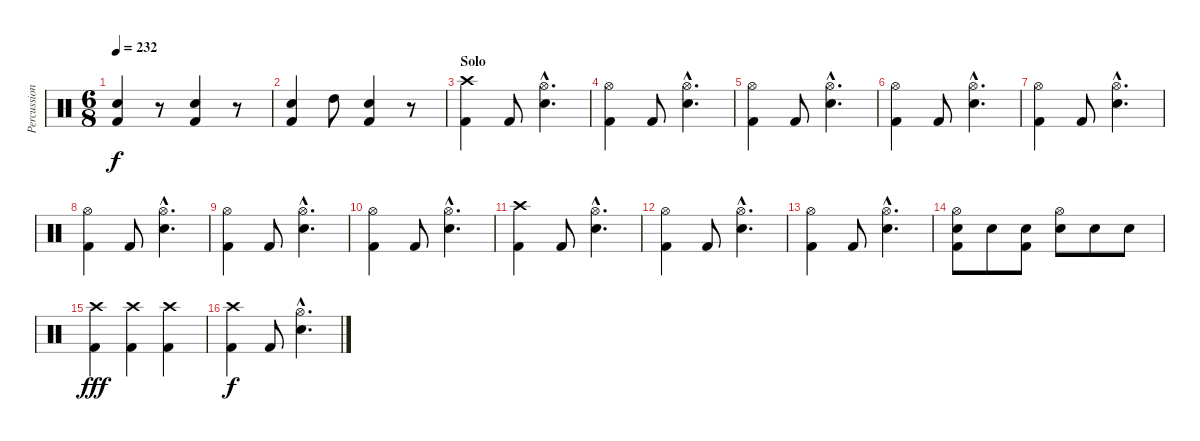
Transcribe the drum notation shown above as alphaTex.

\track ("Percussion" "Percussion") {instrument percussion}
\staff {score}
\articulation defaults
\ts (6 8)
\tempo 232
\clef neutral
\ks c
("Electric Snare (hit)" "Kick (hit) 2").4{dy f} r.8 ("Electric Snare (hit)" "Kick (hit) 2").4 r.8 |
("Electric Snare (hit)" "Kick (hit) 2").4 "High Tom (hit)".8 ("Electric Snare (hit)" "Kick (hit) 2").4 r.8 |
\section ("" "Solo")
("Crash high (hit)" "Kick (hit) 2").4 "Kick (hit) 2".8 ("Hi-Hat (open)"{hac} "Electric Snare (hit)"{hac}).4{d} |
("Hi-Hat (open)" "Kick (hit) 2").4 "Kick (hit) 2".8 ("Hi-Hat (open)"{hac} "Electric Snare (hit)"{hac}).4{d} |
("Hi-Hat (open)" "Kick (hit) 2").4 "Kick (hit) 2".8 ("Hi-Hat (open)"{hac} "Electric Snare (hit)"{hac}).4{d} |
("Hi-Hat (open)" "Kick (hit) 2").4 "Kick (hit) 2".8 ("Hi-Hat (open)"{hac} "Electric Snare (hit)"{hac}).4{d} |
("Hi-Hat (open)" "Kick (hit) 2").4 "Kick (hit) 2".8 ("Hi-Hat (open)"{hac} "Electric Snare (hit)"{hac}).4{d} |
("Hi-Hat (open)" "Kick (hit) 2").4 "Kick (hit) 2".8 ("Hi-Hat (open)"{hac} "Electric Snare (hit)"{hac}).4{d} |
("Hi-Hat (open)" "Kick (hit) 2").4 "Kick (hit) 2".8 ("Hi-Hat (open)"{hac} "Electric Snare (hit)"{hac}).4{d} |
("Hi-Hat (open)" "Kick (hit) 2").4 "Kick (hit) 2".8 ("Hi-Hat (open)"{hac} "Electric Snare (hit)"{hac}).4{d} |
("Crash high (hit)" "Kick (hit) 2").4 "Kick (hit) 2".8 ("Hi-Hat (open)"{hac} "Electric Snare (hit)"{hac}).4{d} |
("Hi-Hat (open)" "Kick (hit) 2").4 "Kick (hit) 2".8 ("Hi-Hat (open)"{hac} "Electric Snare (hit)"{hac}).4{d} |
("Hi-Hat (open)" "Kick (hit) 2").4 "Kick (hit) 2".8 ("Hi-Hat (open)"{hac} "Electric Snare (hit)"{hac}).4{d} |
("Hi-Hat (open)" "Electric Snare (hit)" "Kick (hit) 2").8 "Electric Snare (hit)".8 ("Electric Snare (hit)" "Kick (hit) 2").8 ("Hi-Hat (open)" "Electric Snare (hit)").8 "Electric Snare (hit)".8 "Electric Snare (hit)".8 |
("Crash high (hit)" "Kick (hit) 2").4{dy fff} ("Crash high (hit)" "Kick (hit) 2").4 ("Crash high (hit)" "Kick (hit) 2").4 |
("Crash high (hit)" "Kick (hit) 2").4{dy f} "Kick (hit) 2".8 ("Hi-Hat (open)"{hac} "Electric Snare (hit)"{hac}).4{d}
